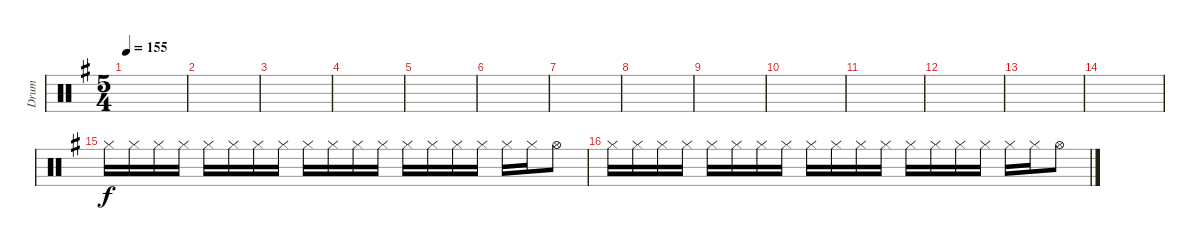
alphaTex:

\track ("Drum" "Drum") {instrument percussion}
\staff {score}
\articulation defaults
\ts (5 4)
\tempo 155
\clef neutral
\ks g
|
|
|
|
|
|
|
|
|
|
|
|
|
|
"Hi-Hat (closed)".16 "Hi-Hat (closed)".16 "Hi-Hat (closed)".16 "Hi-Hat (closed)".16 "Hi-Hat (closed)".16 "Hi-Hat (closed)".16 "Hi-Hat (closed)".16 "Hi-Hat (closed)".16 "Hi-Hat (closed)".16 "Hi-Hat (closed)".16 "Hi-Hat (closed)".16 "Hi-Hat (closed)".16 "Hi-Hat (closed)".16 "Hi-Hat (closed)".16 "Hi-Hat (closed)".16 "Hi-Hat (closed)".16 "Hi-Hat (closed)".16 "Hi-Hat (closed)".16 "Hi-Hat (open)".8 |
"Hi-Hat (closed)".16 "Hi-Hat (closed)".16 "Hi-Hat (closed)".16 "Hi-Hat (closed)".16 "Hi-Hat (closed)".16 "Hi-Hat (closed)".16 "Hi-Hat (closed)".16 "Hi-Hat (closed)".16 "Hi-Hat (closed)".16 "Hi-Hat (closed)".16 "Hi-Hat (closed)".16 "Hi-Hat (closed)".16 "Hi-Hat (closed)".16 "Hi-Hat (closed)".16 "Hi-Hat (closed)".16 "Hi-Hat (closed)".16 "Hi-Hat (closed)".16 "Hi-Hat (closed)".16 "Hi-Hat (open)".8
